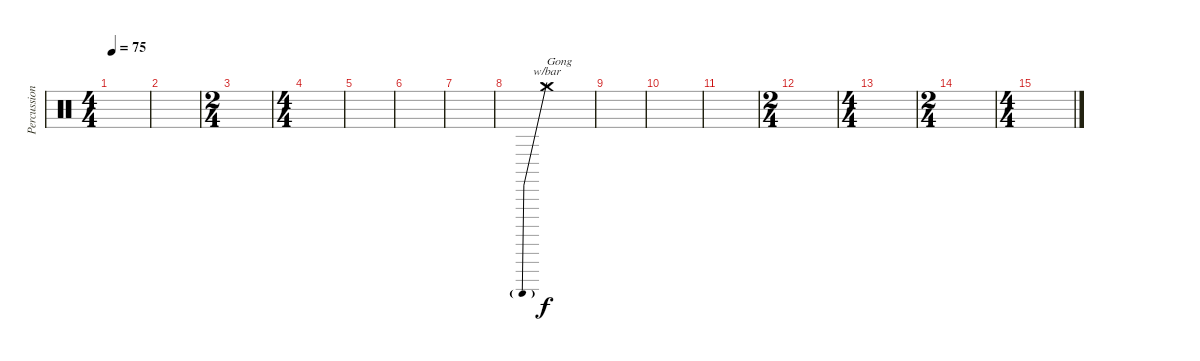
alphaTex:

\track ("Percussion" "Percussion") {instrument percussion}
\staff {score}
\articulation defaults
\ts (4 4)
\tempo 75
\clef neutral
\ks c
|
|
\ts (2 4)
|
\ts (4 4)
|
|
|
|
"Crash medium (hit)".1{tbe (predive default 0 -24 60 -24) txt "Gong"} |
|
|
|
\ts (2 4)
|
\ts (4 4)
|
\ts (2 4)
|
\ts (4 4)
